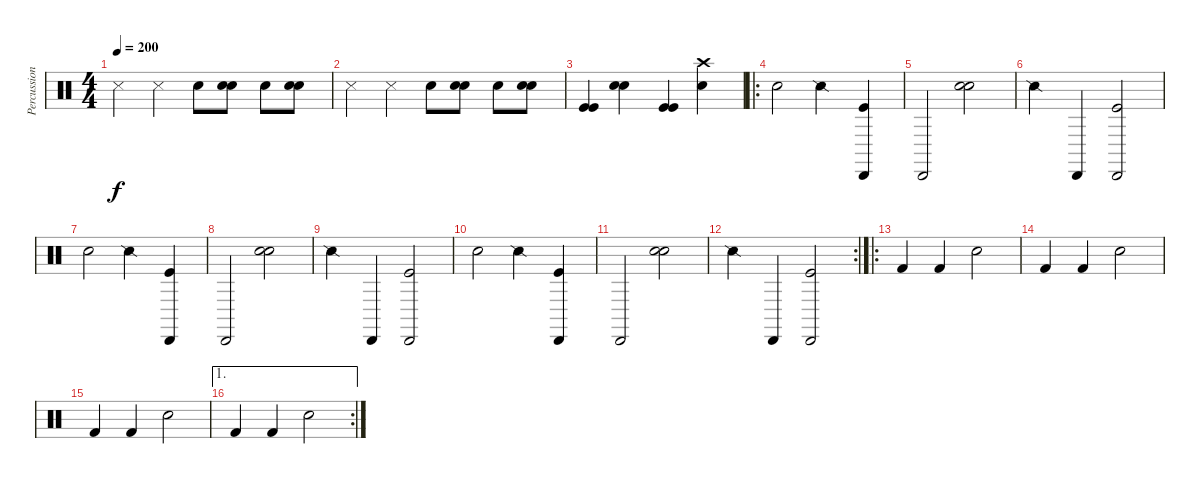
\track ("Percussions" "Percussion") {instrument percussion}
\staff {score}
\articulation defaults
\ts (4 4)
\tempo 200
\clef neutral
\ks c "Snare (side stick) 3".4{dy f} "Snare (side stick) 3".4 "Snare (hit) 2".8
("Snare (hit) 2" "Snare (hit) 2").8 "Snare (hit) 2".8 ("Snare (hit) 2" "Snare (hit) 2").8 |
"Snare (side stick) 3".4 "Snare (side stick) 3".4 "Snare (hit) 2".8 ("Snare (hit) 2" "Snare (hit) 2").8 "Snare (hit) 2".8 ("Snare (hit) 2" "Snare (hit) 2").8 |
("Kick (hit)" "Kick (hit)").4 ("Snare (hit) 2" "Snare (hit) 2").4 ("Kick (hit)" "Kick (hit)").4 ("Crash high (hit)" "Snare (hit) 2").4 |
\ro "Snare (hit) 2".2 "Snare (side stick) 2".4
("Cabasa (hit)" "Kick (hit)").4 |
"Cabasa (hit)".2 ("Snare (hit) 2" "Snare (hit) 2").2 |
"Snare (side stick) 2".4 "Cabasa (hit)".4 ("Cabasa (hit)" "Kick (hit)").2 |
"Snare (hit) 2".2 "Snare (side stick) 2".4 ("Cabasa (hit)" "Kick (hit)").4 |
"Cabasa (hit)".2 ("Snare (hit) 2" "Snare (hit) 2").2 |
"Snare (side stick) 2".4 "Cabasa (hit)".4 ("Cabasa (hit)" "Kick (hit)").2 |
"Snare (hit) 2".2 "Snare (side stick) 2".4 ("Cabasa (hit)" "Kick (hit)").4 |
"Cabasa (hit)".2 ("Snare (hit) 2" "Snare (hit) 2").2 |
\rc 2 "Snare (side stick) 2".4 "Cabasa (hit)".4
("Cabasa (hit)" "Kick (hit)").2 |
\ro "Kick (hit) 2".4 "Kick (hit) 2".4 "Snare (hit) 2".2
|
"Kick (hit) 2".4 "Kick (hit) 2".4 "Snare (hit) 2".2 |
"Kick (hit) 2".4 "Kick (hit) 2".4 "Snare (hit) 2".2 |
\ae 1
\rc 2 "Kick (hit) 2".4 "Kick (hit) 2".4 "Snare (hit) 2".2
